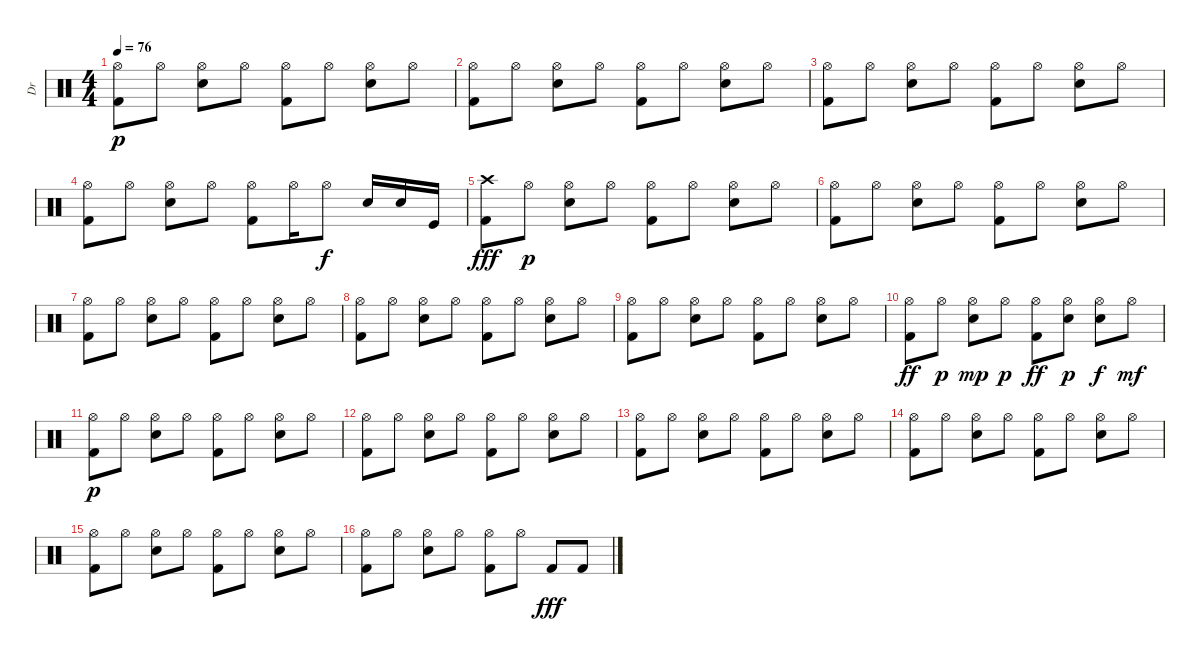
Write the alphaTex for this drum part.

\track ("Dr" "Dr") {instrument percussion}
\staff {score}
\articulation defaults
\ts (4 4)
\tempo 76
\clef neutral
\ks c
("Kick (hit) 2" "Hi-Hat (open)").8{dy p} "Hi-Hat (open)".8 ("Hi-Hat (open)" "Snare (hit) 2").8 "Hi-Hat (open)".8 ("Kick (hit) 2" "Hi-Hat (open)").8 "Hi-Hat (open)".8 ("Snare (hit) 2" "Hi-Hat (open)").8 "Hi-Hat (open)".8 |
("Kick (hit) 2" "Hi-Hat (open)").8 "Hi-Hat (open)".8 ("Hi-Hat (open)" "Snare (hit) 2").8 "Hi-Hat (open)".8 ("Kick (hit) 2" "Hi-Hat (open)").8 "Hi-Hat (open)".8 ("Snare (hit) 2" "Hi-Hat (open)").8 "Hi-Hat (open)".8 |
("Kick (hit) 2" "Hi-Hat (open)").8 "Hi-Hat (open)".8 ("Hi-Hat (open)" "Snare (hit) 2").8 "Hi-Hat (open)".8 ("Kick (hit) 2" "Hi-Hat (open)").8 "Hi-Hat (open)".8 ("Snare (hit) 2" "Hi-Hat (open)").8 "Hi-Hat (open)".8 |
("Kick (hit) 2" "Hi-Hat (open)").8 "Hi-Hat (open)".8 ("Hi-Hat (open)" "Snare (hit) 2").8 "Hi-Hat (open)".8 ("Kick (hit) 2" "Hi-Hat (open)").8 "Hi-Hat (open)".16 "Hi-Hat (open)".8{dy f} "Snare (hit) 2".16 "Snare (hit) 2".16 "Kick (hit)".16 |
("Kick (hit) 2" "Crash high (hit)").8{dy fff} "Hi-Hat (open)".8{dy p} ("Hi-Hat (open)" "Snare (hit) 2").8 "Hi-Hat (open)".8 ("Kick (hit) 2" "Hi-Hat (open)").8 "Hi-Hat (open)".8 ("Snare (hit) 2" "Hi-Hat (open)").8 "Hi-Hat (open)".8 |
("Kick (hit) 2" "Hi-Hat (open)").8 "Hi-Hat (open)".8 ("Hi-Hat (open)" "Snare (hit) 2").8 "Hi-Hat (open)".8 ("Kick (hit) 2" "Hi-Hat (open)").8 "Hi-Hat (open)".8 ("Snare (hit) 2" "Hi-Hat (open)").8 "Hi-Hat (open)".8 |
("Kick (hit) 2" "Hi-Hat (open)").8 "Hi-Hat (open)".8 ("Hi-Hat (open)" "Snare (hit) 2").8 "Hi-Hat (open)".8 ("Kick (hit) 2" "Hi-Hat (open)").8 "Hi-Hat (open)".8 ("Snare (hit) 2" "Hi-Hat (open)").8 "Hi-Hat (open)".8 |
("Kick (hit) 2" "Hi-Hat (open)").8 "Hi-Hat (open)".8 ("Hi-Hat (open)" "Snare (hit) 2").8 "Hi-Hat (open)".8 ("Kick (hit) 2" "Hi-Hat (open)").8 "Hi-Hat (open)".8 ("Snare (hit) 2" "Hi-Hat (open)").8 "Hi-Hat (open)".8 |
("Kick (hit) 2" "Hi-Hat (open)").8 "Hi-Hat (open)".8 ("Hi-Hat (open)" "Snare (hit) 2").8 "Hi-Hat (open)".8 ("Kick (hit) 2" "Hi-Hat (open)").8 "Hi-Hat (open)".8 ("Snare (hit) 2" "Hi-Hat (open)").8 "Hi-Hat (open)".8 |
("Kick (hit) 2" "Hi-Hat (open)").8{dy ff} "Hi-Hat (open)".8{dy p} ("Hi-Hat (open)" "Snare (hit) 2").8{dy mp} "Hi-Hat (open)".8{dy p} ("Kick (hit) 2" "Hi-Hat (open)").8{dy ff} ("Snare (hit) 2" "Hi-Hat (open)").8{dy p} ("Snare (hit) 2" "Hi-Hat (open)").8{dy f} "Hi-Hat (open)".8{dy mf} |
("Kick (hit) 2" "Hi-Hat (open)").8{dy p} "Hi-Hat (open)".8 ("Hi-Hat (open)" "Snare (hit) 2").8 "Hi-Hat (open)".8 ("Kick (hit) 2" "Hi-Hat (open)").8 "Hi-Hat (open)".8 ("Snare (hit) 2" "Hi-Hat (open)").8 "Hi-Hat (open)".8 |
("Kick (hit) 2" "Hi-Hat (open)").8 "Hi-Hat (open)".8 ("Hi-Hat (open)" "Snare (hit) 2").8 "Hi-Hat (open)".8 ("Kick (hit) 2" "Hi-Hat (open)").8 "Hi-Hat (open)".8 ("Snare (hit) 2" "Hi-Hat (open)").8 "Hi-Hat (open)".8 |
("Kick (hit) 2" "Hi-Hat (open)").8 "Hi-Hat (open)".8 ("Hi-Hat (open)" "Snare (hit) 2").8 "Hi-Hat (open)".8 ("Kick (hit) 2" "Hi-Hat (open)").8 "Hi-Hat (open)".8 ("Snare (hit) 2" "Hi-Hat (open)").8 "Hi-Hat (open)".8 |
("Kick (hit) 2" "Hi-Hat (open)").8 "Hi-Hat (open)".8 ("Hi-Hat (open)" "Snare (hit) 2").8 "Hi-Hat (open)".8 ("Kick (hit) 2" "Hi-Hat (open)").8 "Hi-Hat (open)".8 ("Snare (hit) 2" "Hi-Hat (open)").8 "Hi-Hat (open)".8 |
("Kick (hit) 2" "Hi-Hat (open)").8 "Hi-Hat (open)".8 ("Hi-Hat (open)" "Snare (hit) 2").8 "Hi-Hat (open)".8 ("Kick (hit) 2" "Hi-Hat (open)").8 "Hi-Hat (open)".8 ("Snare (hit) 2" "Hi-Hat (open)").8 "Hi-Hat (open)".8 |
("Kick (hit) 2" "Hi-Hat (open)").8 "Hi-Hat (open)".8 ("Hi-Hat (open)" "Snare (hit) 2").8 "Hi-Hat (open)".8 ("Kick (hit) 2" "Hi-Hat (open)").8 "Hi-Hat (open)".8 "Kick (hit) 2".8{dy fff} "Kick (hit) 2".8
